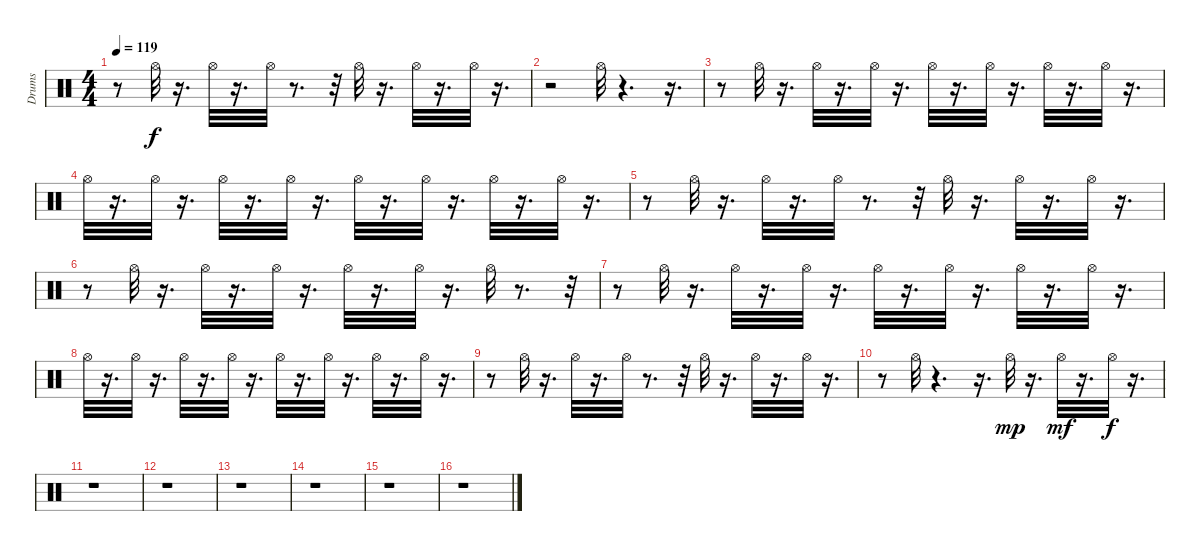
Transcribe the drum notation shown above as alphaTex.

\track ("Drums" "Drums") {instrument percussion}
\staff {score}
\articulation defaults
\ts (4 4)
\tempo 119
\clef neutral
\ks c
r.8{dy f} "Hi-Hat (open)".32 r.16{d} "Hi-Hat (open)".32 r.16{d} "Hi-Hat (open)".32 r.8{d} r.32 "Hi-Hat (open)".32 r.16{d} "Hi-Hat (open)".32 r.16{d} "Hi-Hat (open)".32 r.16{d} |
r.2 "Hi-Hat (open)".32 r.4{d} r.16{d} |
r.8 "Hi-Hat (open)".32 r.16{d} "Hi-Hat (open)".32 r.16{d} "Hi-Hat (open)".32 r.16{d} "Hi-Hat (open)".32 r.16{d} "Hi-Hat (open)".32 r.16{d} "Hi-Hat (open)".32 r.16{d} "Hi-Hat (open)".32 r.16{d} |
"Hi-Hat (open)".32 r.16{d} "Hi-Hat (open)".32 r.16{d} "Hi-Hat (open)".32 r.16{d} "Hi-Hat (open)".32 r.16{d} "Hi-Hat (open)".32 r.16{d} "Hi-Hat (open)".32 r.16{d} "Hi-Hat (open)".32 r.16{d} "Hi-Hat (open)".32 r.16{d} |
r.8 "Hi-Hat (open)".32 r.16{d} "Hi-Hat (open)".32 r.16{d} "Hi-Hat (open)".32 r.8{d} r.32 "Hi-Hat (open)".32 r.16{d} "Hi-Hat (open)".32 r.16{d} "Hi-Hat (open)".32 r.16{d} |
r.8 "Hi-Hat (open)".32 r.16{d} "Hi-Hat (open)".32 r.16{d} "Hi-Hat (open)".32 r.16{d} "Hi-Hat (open)".32 r.16{d} "Hi-Hat (open)".32 r.16{d} "Hi-Hat (open)".32 r.8{d} r.32 |
r.8 "Hi-Hat (open)".32 r.16{d} "Hi-Hat (open)".32 r.16{d} "Hi-Hat (open)".32 r.16{d} "Hi-Hat (open)".32 r.16{d} "Hi-Hat (open)".32 r.16{d} "Hi-Hat (open)".32 r.16{d} "Hi-Hat (open)".32 r.16{d} |
"Hi-Hat (open)".32 r.16{d} "Hi-Hat (open)".32 r.16{d} "Hi-Hat (open)".32 r.16{d} "Hi-Hat (open)".32 r.16{d} "Hi-Hat (open)".32 r.16{d} "Hi-Hat (open)".32 r.16{d} "Hi-Hat (open)".32 r.16{d} "Hi-Hat (open)".32 r.16{d} |
r.8 "Hi-Hat (open)".32 r.16{d} "Hi-Hat (open)".32 r.16{d} "Hi-Hat (open)".32 r.8{d} r.32 "Hi-Hat (open)".32 r.16{d} "Hi-Hat (open)".32 r.16{d} "Hi-Hat (open)".32 r.16{d} |
r.8 "Hi-Hat (open)".32 r.4{d} r.16{d} "Hi-Hat (open)".32{dy mp} r.16{d} "Hi-Hat (open)".32{dy mf} r.16{d} "Hi-Hat (open)".32{dy f} r.16{d} |
r.1 |
r.1 |
r.1 |
r.1 |
r.1 |
r.1
